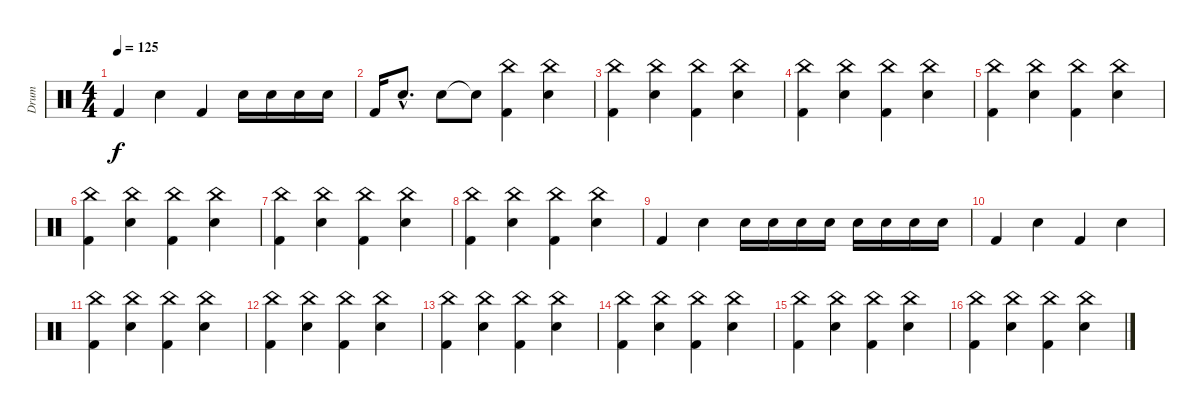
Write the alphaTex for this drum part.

\track ("Drum" "Drum") {instrument percussion}
\staff {score}
\articulation defaults
\ts (4 4)
\tempo 125
\clef neutral
\ks c "Kick (hit) 2".4{dy f} "Snare (hit) 2".4 "Kick (hit) 2".4 "Snare (hit) 2".16 "Snare (hit) 2".16 "Snare (hit) 2".16 "Snare (hit) 2".16
|
"Kick (hit) 2".16 "Snare (hit) 2"{hac}.8{d} "Snare (hit) 2".8 "Snare (hit)"{t}.8 ("China (hit)" "Kick (hit) 2").4 ("China (hit)" "Snare (hit) 2").4 |
("China (hit)" "Kick (hit) 2").4 ("China (hit)" "Snare (hit) 2").4 ("China (hit)" "Kick (hit) 2").4 ("China (hit)" "Snare (hit) 2").4 |
("China (hit)" "Kick (hit) 2").4 ("China (hit)" "Snare (hit) 2").4 ("China (hit)" "Kick (hit) 2").4 ("China (hit)" "Snare (hit) 2").4 |
("China (hit)" "Kick (hit) 2").4 ("China (hit)" "Snare (hit) 2").4 ("China (hit)" "Kick (hit) 2").4 ("China (hit)" "Snare (hit) 2").4 |
("China (hit)" "Kick (hit) 2").4 ("China (hit)" "Snare (hit) 2").4 ("China (hit)" "Kick (hit) 2").4 ("China (hit)" "Snare (hit) 2").4 |
("China (hit)" "Kick (hit) 2").4 ("China (hit)" "Snare (hit) 2").4 ("China (hit)" "Kick (hit) 2").4 ("China (hit)" "Snare (hit) 2").4 |
("China (hit)" "Kick (hit) 2").4 ("China (hit)" "Snare (hit) 2").4 ("China (hit)" "Kick (hit) 2").4 ("China (hit)" "Snare (hit) 2").4 |
"Kick (hit) 2".4 "Snare (hit) 2".4 "Snare (hit) 2".16 "Snare (hit) 2".16 "Snare (hit) 2".16 "Snare (hit) 2".16 "Snare (hit) 2".16 "Snare (hit) 2".16 "Snare (hit) 2".16 "Snare (hit) 2".16 |
"Kick (hit) 2".4 "Snare (hit) 2".4 "Kick (hit) 2".4 "Snare (hit) 2".4 |
("China (hit)" "Kick (hit) 2").4 ("China (hit)" "Snare (hit) 2").4 ("China (hit)" "Kick (hit) 2").4 ("China (hit)" "Snare (hit) 2").4 |
("China (hit)" "Kick (hit) 2").4 ("China (hit)" "Snare (hit) 2").4 ("China (hit)" "Kick (hit) 2").4 ("China (hit)" "Snare (hit) 2").4 |
("China (hit)" "Kick (hit) 2").4 ("China (hit)" "Snare (hit) 2").4 ("China (hit)" "Kick (hit) 2").4 ("China (hit)" "Snare (hit) 2").4 |
("China (hit)" "Kick (hit) 2").4 ("China (hit)" "Snare (hit) 2").4 ("China (hit)" "Kick (hit) 2").4 ("China (hit)" "Snare (hit) 2").4 |
("China (hit)" "Kick (hit) 2").4 ("China (hit)" "Snare (hit) 2").4 ("China (hit)" "Kick (hit) 2").4 ("China (hit)" "Snare (hit) 2").4 |
("China (hit)" "Kick (hit) 2").4 ("China (hit)" "Snare (hit) 2").4 ("China (hit)" "Kick (hit) 2").4 ("China (hit)" "Snare (hit) 2").4
